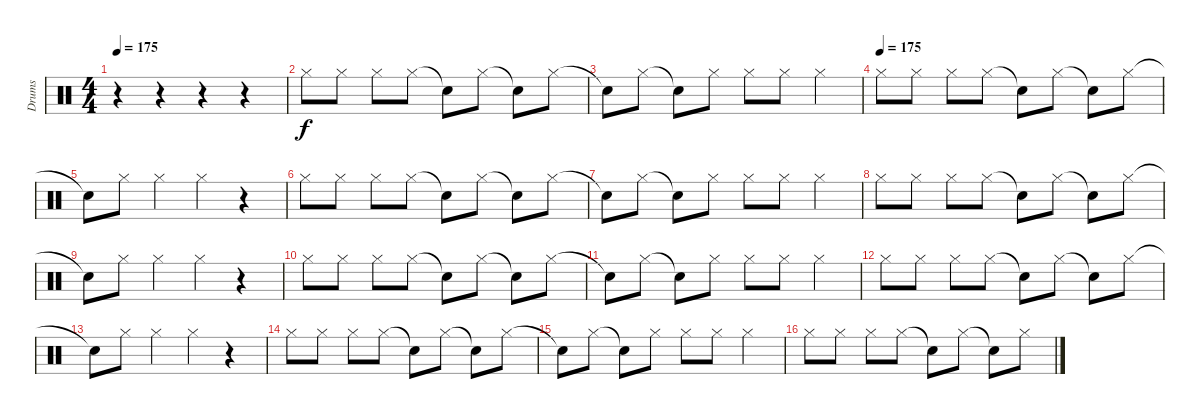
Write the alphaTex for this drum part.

\track ("Drums" "Drums") {mute instrument percussion}
\staff {score}
\articulation defaults
\ts (4 4)
\tempo 175
\clef neutral
\ks c
r.4{dy f} r.4 r.4 r.4 |
"Hi-Hat (closed)".8 "Hi-Hat (closed)".8 "Hi-Hat (closed)".8 "Hi-Hat (closed)".8 "Snare (hit)"{t}.8 "Hi-Hat (closed)".8 "Snare (hit)"{t}.8 "Hi-Hat (closed)".8 |
"Snare (hit)"{t}.8 "Hi-Hat (closed)".8 "Snare (hit)"{t}.8 "Hi-Hat (closed)".8 "Hi-Hat (closed)".8 "Hi-Hat (closed)".8 "Hi-Hat (closed)".4 |
\tempo (175)
"Hi-Hat (closed)".8 "Hi-Hat (closed)".8 "Hi-Hat (closed)".8 "Hi-Hat (closed)".8 "Snare (hit)"{t}.8 "Hi-Hat (closed)".8 "Snare (hit)"{t}.8 "Hi-Hat (closed)".8 |
"Snare (hit)"{t}.8 "Hi-Hat (closed)".8 "Hi-Hat (closed)".4 "Hi-Hat (closed)".4 r.4 |
"Hi-Hat (closed)".8 "Hi-Hat (closed)".8 "Hi-Hat (closed)".8 "Hi-Hat (closed)".8 "Snare (hit)"{t}.8 "Hi-Hat (closed)".8 "Snare (hit)"{t}.8 "Hi-Hat (closed)".8 |
"Snare (hit)"{t}.8 "Hi-Hat (closed)".8 "Snare (hit)"{t}.8 "Hi-Hat (closed)".8 "Hi-Hat (closed)".8 "Hi-Hat (closed)".8 "Hi-Hat (closed)".4 |
"Hi-Hat (closed)".8 "Hi-Hat (closed)".8 "Hi-Hat (closed)".8 "Hi-Hat (closed)".8 "Snare (hit)"{t}.8 "Hi-Hat (closed)".8 "Snare (hit)"{t}.8 "Hi-Hat (closed)".8 |
"Snare (hit)"{t}.8 "Hi-Hat (closed)".8 "Hi-Hat (closed)".4 "Hi-Hat (closed)".4 r.4 |
"Hi-Hat (closed)".8 "Hi-Hat (closed)".8 "Hi-Hat (closed)".8 "Hi-Hat (closed)".8 "Snare (hit)"{t}.8 "Hi-Hat (closed)".8 "Snare (hit)"{t}.8 "Hi-Hat (closed)".8 |
"Snare (hit)"{t}.8 "Hi-Hat (closed)".8 "Snare (hit)"{t}.8 "Hi-Hat (closed)".8 "Hi-Hat (closed)".8 "Hi-Hat (closed)".8 "Hi-Hat (closed)".4 |
"Hi-Hat (closed)".8 "Hi-Hat (closed)".8 "Hi-Hat (closed)".8 "Hi-Hat (closed)".8 "Snare (hit)"{t}.8 "Hi-Hat (closed)".8 "Snare (hit)"{t}.8 "Hi-Hat (closed)".8 |
"Snare (hit)"{t}.8 "Hi-Hat (closed)".8 "Hi-Hat (closed)".4 "Hi-Hat (closed)".4 r.4 |
"Hi-Hat (closed)".8 "Hi-Hat (closed)".8 "Hi-Hat (closed)".8 "Hi-Hat (closed)".8 "Snare (hit)"{t}.8 "Hi-Hat (closed)".8 "Snare (hit)"{t}.8 "Hi-Hat (closed)".8 |
"Snare (hit)"{t}.8 "Hi-Hat (closed)".8 "Snare (hit)"{t}.8 "Hi-Hat (closed)".8 "Hi-Hat (closed)".8 "Hi-Hat (closed)".8 "Hi-Hat (closed)".4 |
"Hi-Hat (closed)".8 "Hi-Hat (closed)".8 "Hi-Hat (closed)".8 "Hi-Hat (closed)".8 "Snare (hit)"{t}.8 "Hi-Hat (closed)".8 "Snare (hit)"{t}.8 "Hi-Hat (closed)".8
